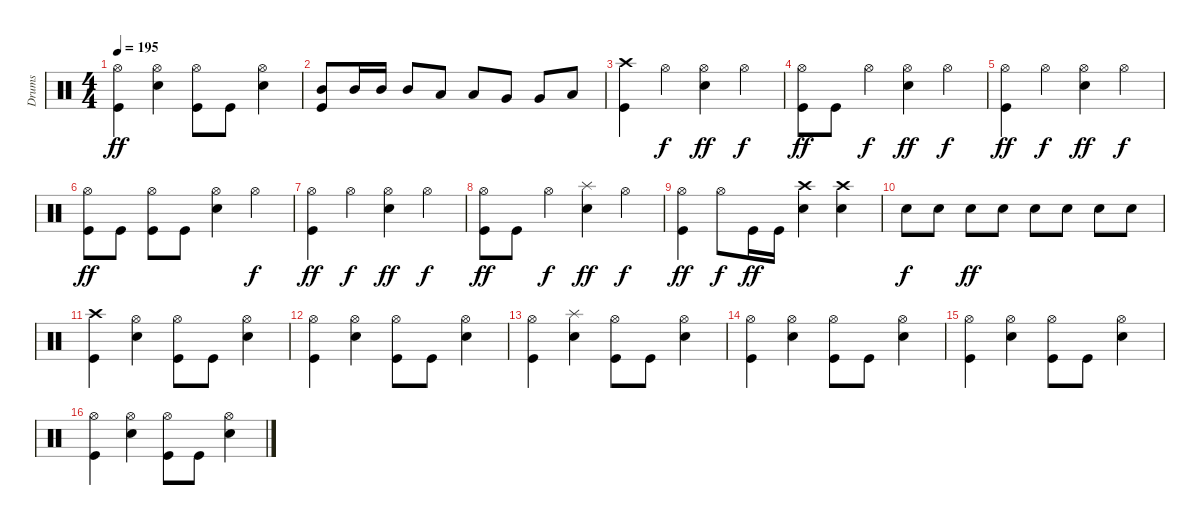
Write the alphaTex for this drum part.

\track ("Drums" "Drums") {instrument percussion}
\staff {score}
\articulation defaults
\ts (4 4)
\tempo 195
\clef neutral
\ks c
("Hi-Hat (open)" "Kick (hit)").4{dy ff} ("Hi-Hat (open)" "Snare (hit) 2").4 ("Hi-Hat (open)" "Kick (hit)").8 "Kick (hit)".8 ("Hi-Hat (open)" "Snare (hit) 2").4 |
("Mid Tom (hit)" "Kick (hit)").8 "Mid Tom (hit)".16 "Mid Tom (hit)".16 "Mid Tom (hit)".8 "Low Tom (hit)".8 "Low Tom (hit)".8 "Very Low Tom (hit)".8 "Very Low Tom (hit)".8 "Low Floor Tom (hit)".8 |
("Crash high (hit)" "Kick (hit)").4 "Hi-Hat (open)".4{dy f} ("Hi-Hat (open)" "Snare (hit) 2").4{dy ff} "Hi-Hat (open)".4{dy f} |
("Hi-Hat (open)" "Kick (hit)").8{dy ff} "Kick (hit)".8 "Hi-Hat (open)".4{dy f} ("Hi-Hat (open)" "Snare (hit) 2").4{dy ff} "Hi-Hat (open)".4{dy f} |
("Hi-Hat (open)" "Kick (hit)").4{dy ff} "Hi-Hat (open)".4{dy f} ("Hi-Hat (open)" "Snare (hit) 2").4{dy ff} "Hi-Hat (open)".4{dy f} |
("Hi-Hat (open)" "Kick (hit)").8{dy ff} "Kick (hit)".8 ("Hi-Hat (open)" "Kick (hit)").8 "Kick (hit)".8 ("Hi-Hat (open)" "Snare (hit) 2").4 "Hi-Hat (open)".4{dy f} |
("Hi-Hat (open)" "Kick (hit)").4{dy ff} "Hi-Hat (open)".4{dy f} ("Hi-Hat (open)" "Snare (hit) 2").4{dy ff} "Hi-Hat (open)".4{dy f} |
("Hi-Hat (open)" "Kick (hit)").8{dy ff} "Kick (hit)".8 "Hi-Hat (open)".4{dy f} ("Splash (hit)" "Snare (hit) 2").4{dy ff} "Hi-Hat (open)".4{dy f} |
("Hi-Hat (open)" "Kick (hit)").4{dy ff} "Hi-Hat (open)".8{dy f} "Kick (hit)".16{dy ff} "Kick (hit)".16 ("Crash high (hit)" "Snare (hit) 2").4 ("Crash high (hit)" "Snare (hit) 2").4 |
"Snare (hit) 2".8{dy f} "Snare (hit) 2".8 "Snare (hit) 2".8{dy ff} "Snare (hit) 2".8 "Snare (hit) 2".8 "Snare (hit) 2".8 "Snare (hit) 2".8 "Snare (hit) 2".8 |
("Crash high (hit)" "Kick (hit)").4 ("Hi-Hat (open)" "Snare (hit) 2").4 ("Hi-Hat (open)" "Kick (hit)").8 "Kick (hit)".8 ("Hi-Hat (open)" "Snare (hit) 2").4 |
("Hi-Hat (open)" "Kick (hit)").4 ("Hi-Hat (open)" "Snare (hit) 2").4 ("Hi-Hat (open)" "Kick (hit)").8 "Kick (hit)".8 ("Hi-Hat (open)" "Snare (hit) 2").4 |
("Hi-Hat (open)" "Kick (hit)").4 ("Splash (hit)" "Snare (hit) 2").4 ("Hi-Hat (open)" "Kick (hit)").8 "Kick (hit)".8 ("Hi-Hat (open)" "Snare (hit) 2").4 |
("Hi-Hat (open)" "Kick (hit)").4 ("Hi-Hat (open)" "Snare (hit) 2").4 ("Hi-Hat (open)" "Kick (hit)").8 "Kick (hit)".8 ("Hi-Hat (open)" "Snare (hit) 2").4 |
("Hi-Hat (open)" "Kick (hit)").4 ("Hi-Hat (open)" "Snare (hit) 2").4 ("Hi-Hat (open)" "Kick (hit)").8 "Kick (hit)".8 ("Hi-Hat (open)" "Snare (hit) 2").4 |
("Hi-Hat (open)" "Kick (hit)").4 ("Hi-Hat (open)" "Snare (hit) 2").4 ("Hi-Hat (open)" "Kick (hit)").8 "Kick (hit)".8 ("Hi-Hat (open)" "Snare (hit) 2").4
